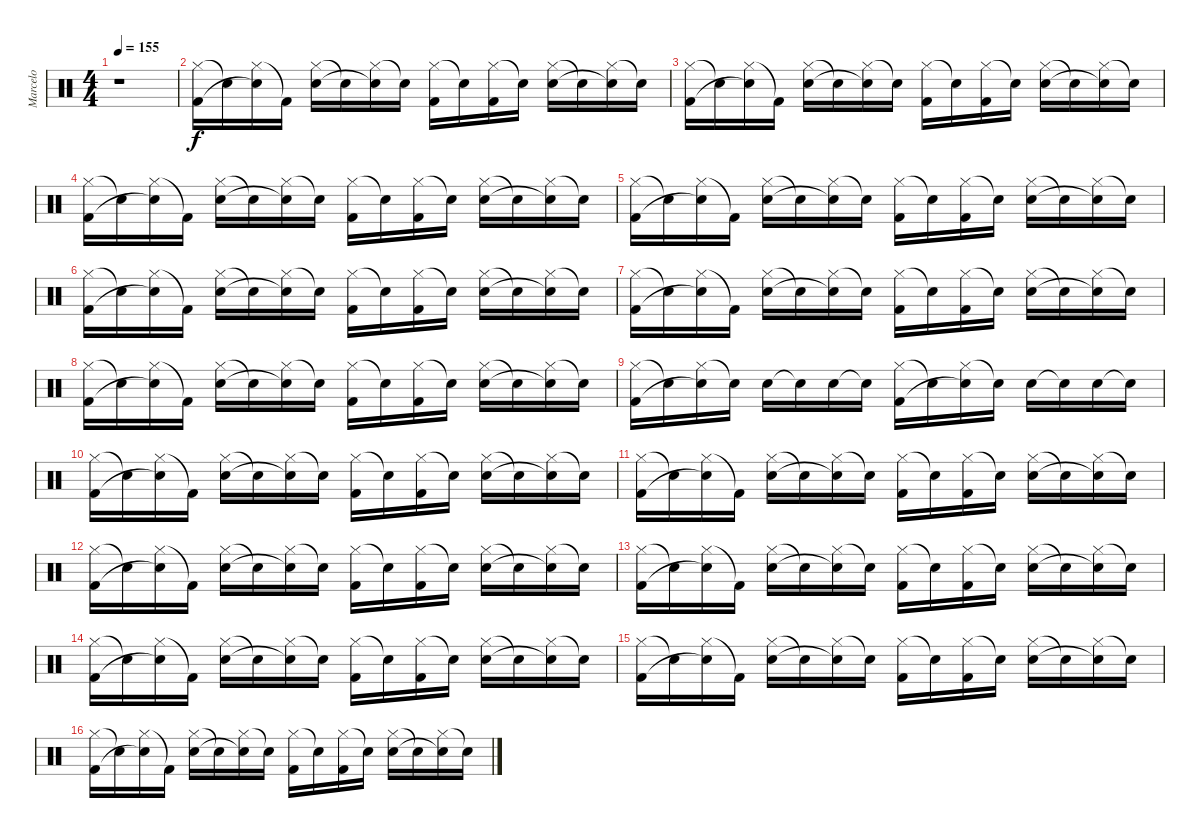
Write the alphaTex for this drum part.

\track ("Marcelo" "Marcelo") {instrument percussion}
\staff {score}
\articulation defaults
\ts (4 4)
\tempo 155
\clef neutral
\ks c
r.1{dy f} |
("Hi-Hat (closed)" "Kick (hit) 2").16 "Snare (hit) 2"{t}.16 ("Hi-Hat (closed)" "Snare (hit) 2"{t}).16 "Kick (hit) 2"{t}.16 ("Hi-Hat (closed)" "Snare (hit) 2").16 "Snare (hit)"{t}.16 ("Hi-Hat (closed)" "Snare (hit)"{t}).16 "Snare (hit)"{t}.16 ("Hi-Hat (closed)" "Kick (hit) 2").16 "Snare (hit)"{t}.16 ("Hi-Hat (closed)" "Kick (hit) 2").16 "Snare (hit)"{t}.16 ("Hi-Hat (closed)" "Snare (hit) 2").16 "Snare (hit)"{t}.16 ("Hi-Hat (closed)" "Snare (hit)"{t}).16 "Snare (hit)"{t}.16 |
("Hi-Hat (closed)" "Kick (hit) 2").16 "Snare (hit) 2"{t}.16 ("Hi-Hat (closed)" "Snare (hit) 2"{t}).16 "Kick (hit) 2"{t}.16 ("Hi-Hat (closed)" "Snare (hit) 2").16 "Snare (hit)"{t}.16 ("Hi-Hat (closed)" "Snare (hit)"{t}).16 "Snare (hit)"{t}.16 ("Hi-Hat (closed)" "Kick (hit) 2").16 "Snare (hit)"{t}.16 ("Hi-Hat (closed)" "Kick (hit) 2").16 "Snare (hit)"{t}.16 ("Hi-Hat (closed)" "Snare (hit) 2").16 "Snare (hit)"{t}.16 ("Hi-Hat (closed)" "Snare (hit)"{t}).16 "Snare (hit)"{t}.16 |
("Hi-Hat (closed)" "Kick (hit) 2").16 "Snare (hit) 2"{t}.16 ("Hi-Hat (closed)" "Snare (hit) 2"{t}).16 "Kick (hit) 2"{t}.16 ("Hi-Hat (closed)" "Snare (hit) 2").16 "Snare (hit)"{t}.16 ("Hi-Hat (closed)" "Snare (hit)"{t}).16 "Snare (hit)"{t}.16 ("Hi-Hat (closed)" "Kick (hit) 2").16 "Snare (hit)"{t}.16 ("Hi-Hat (closed)" "Kick (hit) 2").16 "Snare (hit)"{t}.16 ("Hi-Hat (closed)" "Snare (hit) 2").16 "Snare (hit)"{t}.16 ("Hi-Hat (closed)" "Snare (hit)"{t}).16 "Snare (hit)"{t}.16 |
("Hi-Hat (closed)" "Kick (hit) 2").16 "Snare (hit) 2"{t}.16 ("Hi-Hat (closed)" "Snare (hit) 2"{t}).16 "Kick (hit) 2"{t}.16 ("Hi-Hat (closed)" "Snare (hit) 2").16 "Snare (hit)"{t}.16 ("Hi-Hat (closed)" "Snare (hit)"{t}).16 "Snare (hit)"{t}.16 ("Hi-Hat (closed)" "Kick (hit) 2").16 "Snare (hit)"{t}.16 ("Hi-Hat (closed)" "Kick (hit) 2").16 "Snare (hit)"{t}.16 ("Hi-Hat (closed)" "Snare (hit) 2").16 "Snare (hit)"{t}.16 ("Hi-Hat (closed)" "Snare (hit)"{t}).16 "Snare (hit)"{t}.16 |
("Hi-Hat (closed)" "Kick (hit) 2").16 "Snare (hit) 2"{t}.16 ("Hi-Hat (closed)" "Snare (hit) 2"{t}).16 "Kick (hit) 2"{t}.16 ("Hi-Hat (closed)" "Snare (hit) 2").16 "Snare (hit)"{t}.16 ("Hi-Hat (closed)" "Snare (hit)"{t}).16 "Snare (hit)"{t}.16 ("Hi-Hat (closed)" "Kick (hit) 2").16 "Snare (hit)"{t}.16 ("Hi-Hat (closed)" "Kick (hit) 2").16 "Snare (hit)"{t}.16 ("Hi-Hat (closed)" "Snare (hit) 2").16 "Snare (hit)"{t}.16 ("Hi-Hat (closed)" "Snare (hit)"{t}).16 "Snare (hit)"{t}.16 |
("Hi-Hat (closed)" "Kick (hit) 2").16 "Snare (hit) 2"{t}.16 ("Hi-Hat (closed)" "Snare (hit) 2"{t}).16 "Kick (hit) 2"{t}.16 ("Hi-Hat (closed)" "Snare (hit) 2").16 "Snare (hit)"{t}.16 ("Hi-Hat (closed)" "Snare (hit)"{t}).16 "Snare (hit)"{t}.16 ("Hi-Hat (closed)" "Kick (hit) 2").16 "Snare (hit)"{t}.16 ("Hi-Hat (closed)" "Kick (hit) 2").16 "Snare (hit)"{t}.16 ("Hi-Hat (closed)" "Snare (hit) 2").16 "Snare (hit)"{t}.16 ("Hi-Hat (closed)" "Snare (hit)"{t}).16 "Snare (hit)"{t}.16 |
("Hi-Hat (closed)" "Kick (hit) 2").16 "Snare (hit) 2"{t}.16 ("Hi-Hat (closed)" "Snare (hit) 2"{t}).16 "Kick (hit) 2"{t}.16 ("Hi-Hat (closed)" "Snare (hit) 2").16 "Snare (hit)"{t}.16 ("Hi-Hat (closed)" "Snare (hit)"{t}).16 "Snare (hit)"{t}.16 ("Hi-Hat (closed)" "Kick (hit) 2").16 "Snare (hit)"{t}.16 ("Hi-Hat (closed)" "Kick (hit) 2").16 "Snare (hit)"{t}.16 ("Hi-Hat (closed)" "Snare (hit) 2").16 "Snare (hit)"{t}.16 ("Hi-Hat (closed)" "Snare (hit)"{t}).16 "Snare (hit)"{t}.16 |
("Hi-Hat (closed)" "Kick (hit) 2").16 "Snare (hit)"{t}.16 ("Hi-Hat (closed)" "Snare (hit)"{t}).16 "Snare (hit)"{t}.16 "Snare (hit) 2".16 "Snare (hit)"{t}.16 "Snare (hit) 2".16 "Snare (hit)"{t}.16 ("Hi-Hat (closed)" "Kick (hit) 2").16 "Snare (hit)"{t}.16 ("Hi-Hat (closed)" "Electric Snare (hit)"{t}).16 "Snare (hit)"{t}.16 "Snare (hit) 2".16 "Snare (hit)"{t}.16 "Snare (hit) 2".16 "Snare (hit)"{t}.16 |
("Hi-Hat (closed)" "Kick (hit) 2").16 "Snare (hit) 2"{t}.16 ("Hi-Hat (closed)" "Snare (hit) 2"{t}).16 "Kick (hit) 2"{t}.16 ("Hi-Hat (closed)" "Snare (hit) 2").16 "Snare (hit)"{t}.16 ("Hi-Hat (closed)" "Snare (hit)"{t}).16 "Snare (hit)"{t}.16 ("Hi-Hat (closed)" "Kick (hit) 2").16 "Snare (hit)"{t}.16 ("Hi-Hat (closed)" "Kick (hit) 2").16 "Snare (hit)"{t}.16 ("Hi-Hat (closed)" "Snare (hit) 2").16 "Snare (hit)"{t}.16 ("Hi-Hat (closed)" "Snare (hit)"{t}).16 "Snare (hit)"{t}.16 |
("Hi-Hat (closed)" "Kick (hit) 2").16 "Snare (hit) 2"{t}.16 ("Hi-Hat (closed)" "Snare (hit) 2"{t}).16 "Kick (hit) 2"{t}.16 ("Hi-Hat (closed)" "Snare (hit) 2").16 "Snare (hit)"{t}.16 ("Hi-Hat (closed)" "Snare (hit)"{t}).16 "Snare (hit)"{t}.16 ("Hi-Hat (closed)" "Kick (hit) 2").16 "Snare (hit)"{t}.16 ("Hi-Hat (closed)" "Kick (hit) 2").16 "Snare (hit)"{t}.16 ("Hi-Hat (closed)" "Snare (hit) 2").16 "Snare (hit)"{t}.16 ("Hi-Hat (closed)" "Snare (hit)"{t}).16 "Snare (hit)"{t}.16 |
("Hi-Hat (closed)" "Kick (hit) 2").16 "Snare (hit) 2"{t}.16 ("Hi-Hat (closed)" "Snare (hit) 2"{t}).16 "Kick (hit) 2"{t}.16 ("Hi-Hat (closed)" "Snare (hit) 2").16 "Snare (hit)"{t}.16 ("Hi-Hat (closed)" "Snare (hit)"{t}).16 "Snare (hit)"{t}.16 ("Hi-Hat (closed)" "Kick (hit) 2").16 "Snare (hit)"{t}.16 ("Hi-Hat (closed)" "Kick (hit) 2").16 "Snare (hit)"{t}.16 ("Hi-Hat (closed)" "Snare (hit) 2").16 "Snare (hit)"{t}.16 ("Hi-Hat (closed)" "Snare (hit)"{t}).16 "Snare (hit)"{t}.16 |
("Hi-Hat (closed)" "Kick (hit) 2").16 "Snare (hit) 2"{t}.16 ("Hi-Hat (closed)" "Snare (hit) 2"{t}).16 "Kick (hit) 2"{t}.16 ("Hi-Hat (closed)" "Snare (hit) 2").16 "Snare (hit)"{t}.16 ("Hi-Hat (closed)" "Snare (hit)"{t}).16 "Snare (hit)"{t}.16 ("Hi-Hat (closed)" "Kick (hit) 2").16 "Snare (hit)"{t}.16 ("Hi-Hat (closed)" "Kick (hit) 2").16 "Snare (hit)"{t}.16 ("Hi-Hat (closed)" "Snare (hit) 2").16 "Snare (hit)"{t}.16 ("Hi-Hat (closed)" "Snare (hit)"{t}).16 "Snare (hit)"{t}.16 |
("Hi-Hat (closed)" "Kick (hit) 2").16 "Snare (hit) 2"{t}.16 ("Hi-Hat (closed)" "Snare (hit) 2"{t}).16 "Kick (hit) 2"{t}.16 ("Hi-Hat (closed)" "Snare (hit) 2").16 "Snare (hit)"{t}.16 ("Hi-Hat (closed)" "Snare (hit)"{t}).16 "Snare (hit)"{t}.16 ("Hi-Hat (closed)" "Kick (hit) 2").16 "Snare (hit)"{t}.16 ("Hi-Hat (closed)" "Kick (hit) 2").16 "Snare (hit)"{t}.16 ("Hi-Hat (closed)" "Snare (hit) 2").16 "Snare (hit)"{t}.16 ("Hi-Hat (closed)" "Snare (hit)"{t}).16 "Snare (hit)"{t}.16 |
("Hi-Hat (closed)" "Kick (hit) 2").16 "Snare (hit) 2"{t}.16 ("Hi-Hat (closed)" "Snare (hit) 2"{t}).16 "Kick (hit) 2"{t}.16 ("Hi-Hat (closed)" "Snare (hit) 2").16 "Snare (hit)"{t}.16 ("Hi-Hat (closed)" "Snare (hit)"{t}).16 "Snare (hit)"{t}.16 ("Hi-Hat (closed)" "Kick (hit) 2").16 "Snare (hit)"{t}.16 ("Hi-Hat (closed)" "Kick (hit) 2").16 "Snare (hit)"{t}.16 ("Hi-Hat (closed)" "Snare (hit) 2").16 "Snare (hit)"{t}.16 ("Hi-Hat (closed)" "Snare (hit)"{t}).16 "Snare (hit)"{t}.16 |
("Hi-Hat (closed)" "Kick (hit) 2").16 "Snare (hit) 2"{t}.16 ("Hi-Hat (closed)" "Snare (hit) 2"{t}).16 "Kick (hit) 2"{t}.16 ("Hi-Hat (closed)" "Snare (hit) 2").16 "Snare (hit)"{t}.16 ("Hi-Hat (closed)" "Snare (hit)"{t}).16 "Snare (hit)"{t}.16 ("Hi-Hat (closed)" "Kick (hit) 2").16 "Snare (hit)"{t}.16 ("Hi-Hat (closed)" "Kick (hit) 2").16 "Snare (hit)"{t}.16 ("Hi-Hat (closed)" "Snare (hit) 2").16 "Snare (hit)"{t}.16 ("Hi-Hat (closed)" "Snare (hit)"{t}).16 "Snare (hit)"{t}.16
